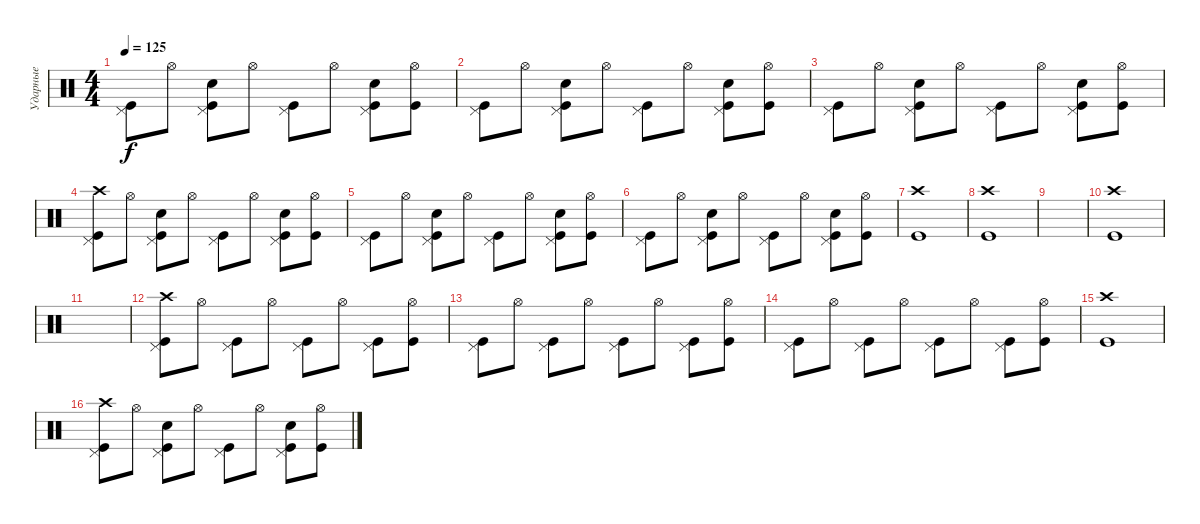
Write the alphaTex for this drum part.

\track ("Ударные" "Ударные") {instrument percussion}
\staff {score}
\articulation defaults
\ts (4 4)
\tempo 125
\clef neutral
\ks c
("Kick (hit)" "Pedal Hi-Hat (hit)").8{dy f} "Hi-Hat (open)".8 ("Kick (hit)" "Pedal Hi-Hat (hit)" "Hand Clap (hit)").8 "Hi-Hat (open)".8 ("Kick (hit)" "Pedal Hi-Hat (hit)").8 "Hi-Hat (open)".8 ("Kick (hit)" "Pedal Hi-Hat (hit)" "Hand Clap (hit)").8 ("Kick (hit)" "Hi-Hat (open)").8 |
("Kick (hit)" "Pedal Hi-Hat (hit)").8 "Hi-Hat (open)".8 ("Kick (hit)" "Pedal Hi-Hat (hit)" "Hand Clap (hit)").8 "Hi-Hat (open)".8 ("Kick (hit)" "Pedal Hi-Hat (hit)").8 "Hi-Hat (open)".8 ("Kick (hit)" "Pedal Hi-Hat (hit)" "Hand Clap (hit)").8 ("Kick (hit)" "Hi-Hat (open)").8 |
("Kick (hit)" "Pedal Hi-Hat (hit)").8 "Hi-Hat (open)".8 ("Kick (hit)" "Pedal Hi-Hat (hit)" "Hand Clap (hit)").8 "Hi-Hat (open)".8 ("Kick (hit)" "Pedal Hi-Hat (hit)").8 "Hi-Hat (open)".8 ("Kick (hit)" "Pedal Hi-Hat (hit)" "Hand Clap (hit)").8 ("Kick (hit)" "Hi-Hat (open)").8 |
("Kick (hit)" "Pedal Hi-Hat (hit)" "Crash high (hit)").8 "Hi-Hat (open)".8 ("Kick (hit)" "Pedal Hi-Hat (hit)" "Hand Clap (hit)").8 "Hi-Hat (open)".8 ("Kick (hit)" "Pedal Hi-Hat (hit)").8 "Hi-Hat (open)".8 ("Kick (hit)" "Pedal Hi-Hat (hit)" "Hand Clap (hit)").8 ("Kick (hit)" "Hi-Hat (open)").8 |
("Kick (hit)" "Pedal Hi-Hat (hit)").8 "Hi-Hat (open)".8 ("Kick (hit)" "Pedal Hi-Hat (hit)" "Hand Clap (hit)").8 "Hi-Hat (open)".8 ("Kick (hit)" "Pedal Hi-Hat (hit)").8 "Hi-Hat (open)".8 ("Kick (hit)" "Pedal Hi-Hat (hit)" "Hand Clap (hit)").8 ("Kick (hit)" "Hi-Hat (open)").8 |
("Kick (hit)" "Pedal Hi-Hat (hit)").8 "Hi-Hat (open)".8 ("Kick (hit)" "Pedal Hi-Hat (hit)" "Hand Clap (hit)").8 "Hi-Hat (open)".8 ("Kick (hit)" "Pedal Hi-Hat (hit)").8 "Hi-Hat (open)".8 ("Kick (hit)" "Pedal Hi-Hat (hit)" "Hand Clap (hit)").8 ("Kick (hit)" "Hi-Hat (open)").8 |
("Kick (hit)" "Crash high (hit)").1 |
("Kick (hit)" "Crash high (hit)").1 |
|
("Kick (hit)" "Crash high (hit)").1 |
|
("Kick (hit)" "Pedal Hi-Hat (hit)" "Crash high (hit)").8 "Hi-Hat (open)".8 ("Kick (hit)" "Pedal Hi-Hat (hit)").8 "Hi-Hat (open)".8 ("Kick (hit)" "Pedal Hi-Hat (hit)").8 "Hi-Hat (open)".8 ("Kick (hit)" "Pedal Hi-Hat (hit)").8 ("Kick (hit)" "Hi-Hat (open)").8 |
("Kick (hit)" "Pedal Hi-Hat (hit)").8 "Hi-Hat (open)".8 ("Kick (hit)" "Pedal Hi-Hat (hit)").8 "Hi-Hat (open)".8 ("Kick (hit)" "Pedal Hi-Hat (hit)").8 "Hi-Hat (open)".8 ("Kick (hit)" "Pedal Hi-Hat (hit)").8 ("Kick (hit)" "Hi-Hat (open)").8 |
("Kick (hit)" "Pedal Hi-Hat (hit)").8 "Hi-Hat (open)".8 ("Kick (hit)" "Pedal Hi-Hat (hit)").8 "Hi-Hat (open)".8 ("Kick (hit)" "Pedal Hi-Hat (hit)").8 "Hi-Hat (open)".8 ("Kick (hit)" "Pedal Hi-Hat (hit)").8 ("Kick (hit)" "Hi-Hat (open)").8 |
("Kick (hit)" "Crash high (hit)").1 |
("Kick (hit)" "Pedal Hi-Hat (hit)" "Crash high (hit)").8 "Hi-Hat (open)".8 ("Kick (hit)" "Pedal Hi-Hat (hit)" "Hand Clap (hit)").8 "Hi-Hat (open)".8 ("Kick (hit)" "Pedal Hi-Hat (hit)").8 "Hi-Hat (open)".8 ("Kick (hit)" "Pedal Hi-Hat (hit)" "Hand Clap (hit)").8 ("Kick (hit)" "Hi-Hat (open)").8
